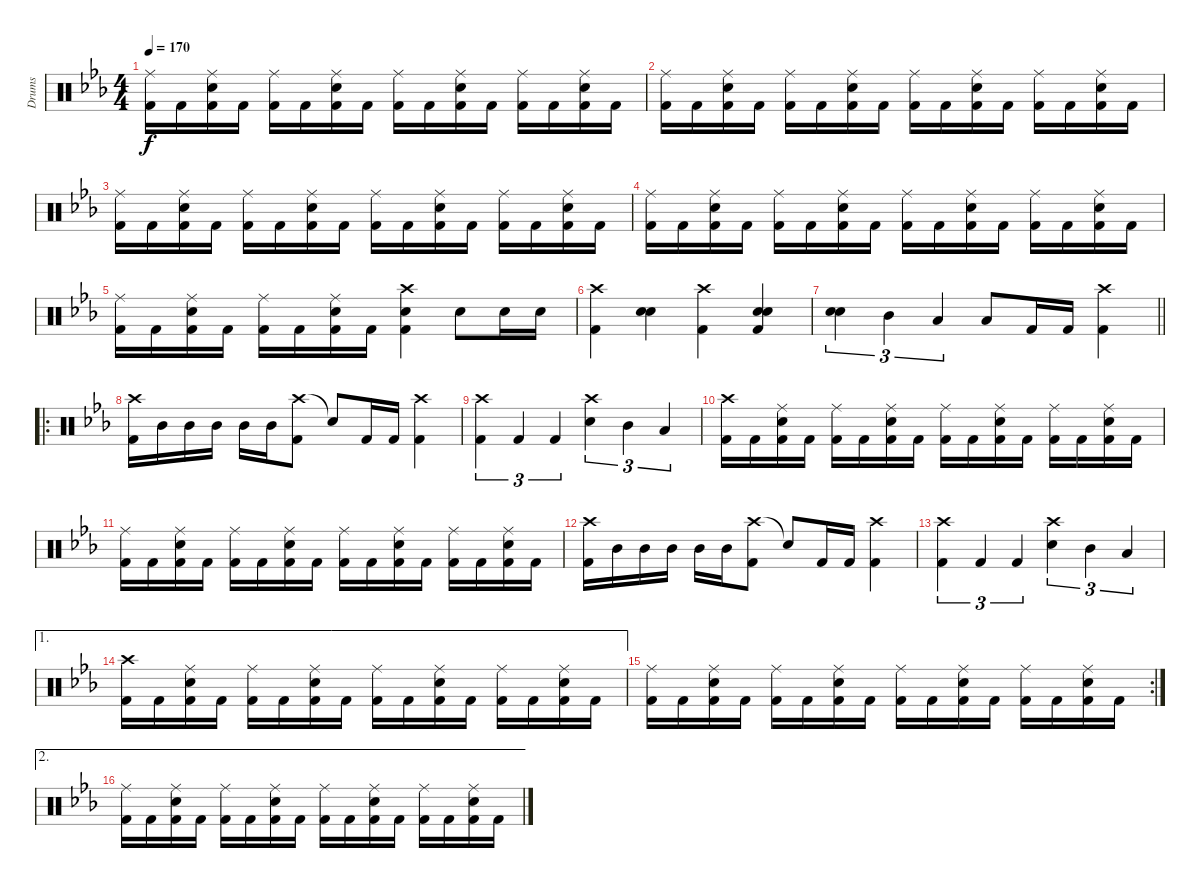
\track ("Drums" "Drums") {instrument percussion}
\staff {score}
\articulation defaults
\ts (4 4)
\tempo 170
\clef neutral
\ks eb
("Ride (middle)" "Kick (hit) 2").16{dy f} "Kick (hit) 2".16 ("Ride (middle)" "Snare (hit) 2" "Kick (hit) 2").16 "Kick (hit) 2".16 ("Ride (middle)" "Kick (hit) 2").16 "Kick (hit) 2".16 ("Ride (middle)" "Snare (hit) 2" "Kick (hit) 2").16 "Kick (hit) 2".16 ("Ride (middle)" "Kick (hit) 2").16 "Kick (hit) 2".16 ("Ride (middle)" "Snare (hit) 2" "Kick (hit) 2").16 "Kick (hit) 2".16 ("Ride (middle)" "Kick (hit) 2").16 "Kick (hit) 2".16 ("Ride (middle)" "Snare (hit) 2" "Kick (hit) 2").16 "Kick (hit) 2".16 |
("Ride (middle)" "Kick (hit) 2").16 "Kick (hit) 2".16 ("Ride (middle)" "Snare (hit) 2" "Kick (hit) 2").16 "Kick (hit) 2".16 ("Ride (middle)" "Kick (hit) 2").16 "Kick (hit) 2".16 ("Ride (middle)" "Snare (hit) 2" "Kick (hit) 2").16 "Kick (hit) 2".16 ("Ride (middle)" "Kick (hit) 2").16 "Kick (hit) 2".16 ("Ride (middle)" "Snare (hit) 2" "Kick (hit) 2").16 "Kick (hit) 2".16 ("Ride (middle)" "Kick (hit) 2").16 "Kick (hit) 2".16 ("Ride (middle)" "Snare (hit) 2" "Kick (hit) 2").16 "Kick (hit) 2".16 |
("Ride (middle)" "Kick (hit) 2").16 "Kick (hit) 2".16 ("Ride (middle)" "Snare (hit) 2" "Kick (hit) 2").16 "Kick (hit) 2".16 ("Ride (middle)" "Kick (hit) 2").16 "Kick (hit) 2".16 ("Ride (middle)" "Snare (hit) 2" "Kick (hit) 2").16 "Kick (hit) 2".16 ("Ride (middle)" "Kick (hit) 2").16 "Kick (hit) 2".16 ("Ride (middle)" "Snare (hit) 2" "Kick (hit) 2").16 "Kick (hit) 2".16 ("Ride (middle)" "Kick (hit) 2").16 "Kick (hit) 2".16 ("Ride (middle)" "Snare (hit) 2" "Kick (hit) 2").16 "Kick (hit) 2".16 |
("Ride (middle)" "Kick (hit) 2").16 "Kick (hit) 2".16 ("Ride (middle)" "Snare (hit) 2" "Kick (hit) 2").16 "Kick (hit) 2".16 ("Ride (middle)" "Kick (hit) 2").16 "Kick (hit) 2".16 ("Ride (middle)" "Snare (hit) 2" "Kick (hit) 2").16 "Kick (hit) 2".16 ("Ride (middle)" "Kick (hit) 2").16 "Kick (hit) 2".16 ("Ride (middle)" "Snare (hit) 2" "Kick (hit) 2").16 "Kick (hit) 2".16 ("Ride (middle)" "Kick (hit) 2").16 "Kick (hit) 2".16 ("Ride (middle)" "Snare (hit) 2" "Kick (hit) 2").16 "Kick (hit) 2".16 |
("Ride (middle)" "Kick (hit) 2").16 "Kick (hit) 2".16 ("Ride (middle)" "Snare (hit) 2" "Kick (hit) 2").16 "Kick (hit) 2".16 ("Ride (middle)" "Kick (hit) 2").16 "Kick (hit) 2".16 ("Ride (middle)" "Snare (hit) 2" "Kick (hit) 2").16 "Kick (hit) 2".16 ("Crash high (hit)" "Snare (hit) 2" "Kick (hit) 2").4 "Snare (hit) 2".8 "Snare (hit) 2".16 "Snare (hit) 2".16 |
("Crash high (hit)" "Kick (hit) 2").4 ("Snare (hit) 2" "Snare (hit) 2").4 ("Crash high (hit)" "Kick (hit) 2").4 ("Snare (hit) 2" "Snare (hit) 2" "Kick (hit) 2").4 |
\barLineRight lightlight
("Snare (hit) 2" "Snare (hit) 2").4{tu (3 2)} "Mid Tom (hit)".4{tu (3 2)} "Low Tom (hit)".4{tu (3 2)} "Low Floor Tom (hit)".8 "Kick (hit) 2".16 "Kick (hit) 2".16 ("Crash high (hit)" "Kick (hit) 2").4 |
\ro
("Crash high (hit)" "Kick (hit) 2").16 "Mid Tom (hit)".16 "Mid Tom (hit)".16 "Mid Tom (hit)".16 "Mid Tom (hit)".16 "Mid Tom (hit)".16 ("Crash high (hit)" "Kick (hit) 2").8 "Snare (hit)"{t}.8 "Kick (hit) 2".16 "Kick (hit) 2".16 ("Crash high (hit)" "Kick (hit) 2").4 |
("Crash high (hit)" "Kick (hit) 2").4{tu (3 2)} "Kick (hit) 2".4{tu (3 2)} "Kick (hit) 2".4{tu (3 2)} ("Crash high (hit)" "Snare (hit) 2").4{tu (3 2)} "Mid Tom (hit)".4{tu (3 2)} "Low Tom (hit)".4{tu (3 2)} |
("Crash high (hit)" "Kick (hit) 2").16 "Kick (hit) 2".16 ("Ride (middle)" "Snare (hit) 2" "Kick (hit) 2").16 "Kick (hit) 2".16 ("Ride (middle)" "Kick (hit) 2").16 "Kick (hit) 2".16 ("Ride (middle)" "Snare (hit) 2" "Kick (hit) 2").16 "Kick (hit) 2".16 ("Ride (middle)" "Kick (hit) 2").16 "Kick (hit) 2".16 ("Ride (middle)" "Snare (hit) 2" "Kick (hit) 2").16 "Kick (hit) 2".16 ("Ride (middle)" "Kick (hit) 2").16 "Kick (hit) 2".16 ("Ride (middle)" "Snare (hit) 2" "Kick (hit) 2").16 "Kick (hit) 2".16 |
("Ride (middle)" "Kick (hit) 2").16 "Kick (hit) 2".16 ("Ride (middle)" "Snare (hit) 2" "Kick (hit) 2").16 "Kick (hit) 2".16 ("Ride (middle)" "Kick (hit) 2").16 "Kick (hit) 2".16 ("Ride (middle)" "Snare (hit) 2" "Kick (hit) 2").16 "Kick (hit) 2".16 ("Ride (middle)" "Kick (hit) 2").16 "Kick (hit) 2".16 ("Ride (middle)" "Snare (hit) 2" "Kick (hit) 2").16 "Kick (hit) 2".16 ("Ride (middle)" "Kick (hit) 2").16 "Kick (hit) 2".16 ("Ride (middle)" "Snare (hit) 2" "Kick (hit) 2").16 "Kick (hit) 2".16 |
("Crash high (hit)" "Kick (hit) 2").16 "Mid Tom (hit)".16 "Mid Tom (hit)".16 "Mid Tom (hit)".16 "Mid Tom (hit)".16 "Mid Tom (hit)".16 ("Crash high (hit)" "Kick (hit) 2").8 "Snare (hit)"{t}.8 "Kick (hit) 2".16 "Kick (hit) 2".16 ("Crash high (hit)" "Kick (hit) 2").4 |
("Crash high (hit)" "Kick (hit) 2").4{tu (3 2)} "Kick (hit) 2".4{tu (3 2)} "Kick (hit) 2".4{tu (3 2)} ("Crash high (hit)" "Snare (hit) 2").4{tu (3 2)} "Mid Tom (hit)".4{tu (3 2)} "Low Tom (hit)".4{tu (3 2)} |
\ae 1
("Crash high (hit)" "Kick (hit) 2").16 "Kick (hit) 2".16 ("Ride (middle)" "Snare (hit) 2" "Kick (hit) 2").16 "Kick (hit) 2".16 ("Ride (middle)" "Kick (hit) 2").16 "Kick (hit) 2".16 ("Ride (middle)" "Snare (hit) 2" "Kick (hit) 2").16 "Kick (hit) 2".16 ("Ride (middle)" "Kick (hit) 2").16 "Kick (hit) 2".16 ("Ride (middle)" "Snare (hit) 2" "Kick (hit) 2").16 "Kick (hit) 2".16 ("Ride (middle)" "Kick (hit) 2").16 "Kick (hit) 2".16 ("Ride (middle)" "Snare (hit) 2" "Kick (hit) 2").16 "Kick (hit) 2".16 |
\rc 2
("Ride (middle)" "Kick (hit) 2").16 "Kick (hit) 2".16 ("Ride (middle)" "Snare (hit) 2" "Kick (hit) 2").16 "Kick (hit) 2".16 ("Ride (middle)" "Kick (hit) 2").16 "Kick (hit) 2".16 ("Ride (middle)" "Snare (hit) 2" "Kick (hit) 2").16 "Kick (hit) 2".16 ("Ride (middle)" "Kick (hit) 2").16 "Kick (hit) 2".16 ("Ride (middle)" "Snare (hit) 2" "Kick (hit) 2").16 "Kick (hit) 2".16 ("Ride (middle)" "Kick (hit) 2").16 "Kick (hit) 2".16 ("Ride (middle)" "Snare (hit) 2" "Kick (hit) 2").16 "Kick (hit) 2".16 |
\ae 2
("Ride (middle)" "Kick (hit) 2").16 "Kick (hit) 2".16 ("Ride (middle)" "Snare (hit) 2" "Kick (hit) 2").16 "Kick (hit) 2".16 ("Ride (middle)" "Kick (hit) 2").16 "Kick (hit) 2".16 ("Ride (middle)" "Snare (hit) 2" "Kick (hit) 2").16 "Kick (hit) 2".16 ("Ride (middle)" "Kick (hit) 2").16 "Kick (hit) 2".16 ("Ride (middle)" "Snare (hit) 2" "Kick (hit) 2").16 "Kick (hit) 2".16 ("Ride (middle)" "Kick (hit) 2").16 "Kick (hit) 2".16 ("Ride (middle)" "Snare (hit) 2" "Kick (hit) 2").16 "Kick (hit) 2".16
